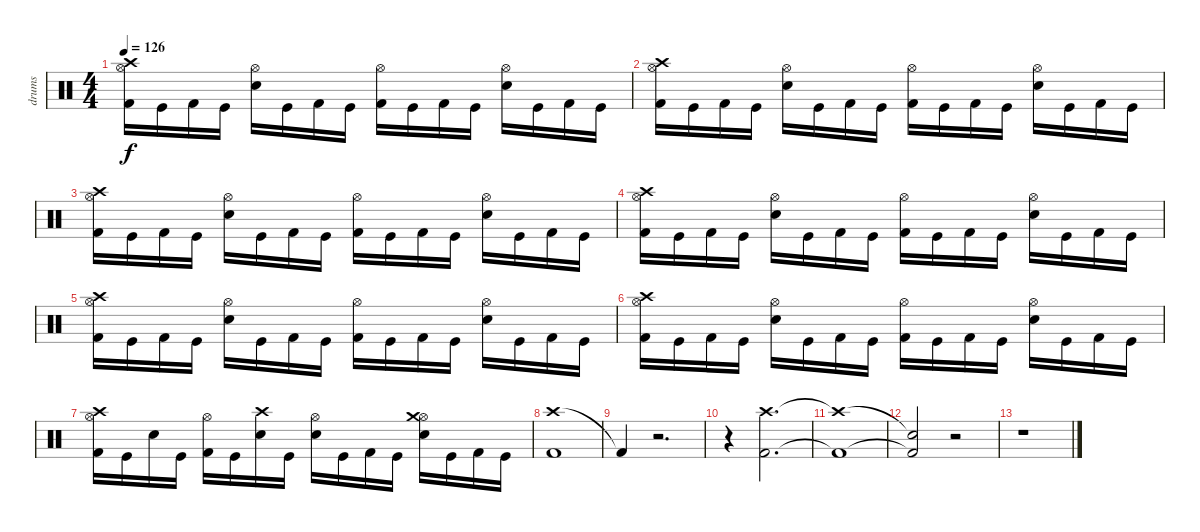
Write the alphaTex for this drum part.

\track ("drums" "drums") {instrument percussion}
\staff {score}
\articulation defaults
\ts (4 4)
\tempo 126
\clef neutral
\ks c
("Kick (hit) 2" "Hi-Hat (open)" "Crash high (hit)").16{dy f} "Kick (hit)".16 "Kick (hit) 2".16 "Kick (hit)".16 ("Electric Snare (hit)" "Hi-Hat (open)").16 "Kick (hit)".16 "Kick (hit) 2".16 "Kick (hit)".16 ("Kick (hit) 2" "Hi-Hat (open)").16 "Kick (hit)".16 "Kick (hit) 2".16 "Kick (hit)".16 ("Electric Snare (hit)" "Hi-Hat (open)").16 "Kick (hit)".16 "Kick (hit) 2".16 "Kick (hit)".16 |
("Kick (hit) 2" "Hi-Hat (open)" "Crash high (hit)").16 "Kick (hit)".16 "Kick (hit) 2".16 "Kick (hit)".16 ("Electric Snare (hit)" "Hi-Hat (open)").16 "Kick (hit)".16 "Kick (hit) 2".16 "Kick (hit)".16 ("Kick (hit) 2" "Hi-Hat (open)").16 "Kick (hit)".16 "Kick (hit) 2".16 "Kick (hit)".16 ("Electric Snare (hit)" "Hi-Hat (open)").16 "Kick (hit)".16 "Kick (hit) 2".16 "Kick (hit)".16 |
("Kick (hit) 2" "Hi-Hat (open)" "Crash high (hit)").16 "Kick (hit)".16 "Kick (hit) 2".16 "Kick (hit)".16 ("Electric Snare (hit)" "Hi-Hat (open)").16 "Kick (hit)".16 "Kick (hit) 2".16 "Kick (hit)".16 ("Kick (hit) 2" "Hi-Hat (open)").16 "Kick (hit)".16 "Kick (hit) 2".16 "Kick (hit)".16 ("Electric Snare (hit)" "Hi-Hat (open)").16 "Kick (hit)".16 "Kick (hit) 2".16 "Kick (hit)".16 |
("Kick (hit) 2" "Hi-Hat (open)" "Crash high (hit)").16 "Kick (hit)".16 "Kick (hit) 2".16 "Kick (hit)".16 ("Electric Snare (hit)" "Hi-Hat (open)").16 "Kick (hit)".16 "Kick (hit) 2".16 "Kick (hit)".16 ("Kick (hit) 2" "Hi-Hat (open)").16 "Kick (hit)".16 "Kick (hit) 2".16 "Kick (hit)".16 ("Electric Snare (hit)" "Hi-Hat (open)").16 "Kick (hit)".16 "Kick (hit) 2".16 "Kick (hit)".16 |
("Kick (hit) 2" "Hi-Hat (open)" "Crash high (hit)").16 "Kick (hit)".16 "Kick (hit) 2".16 "Kick (hit)".16 ("Electric Snare (hit)" "Hi-Hat (open)").16 "Kick (hit)".16 "Kick (hit) 2".16 "Kick (hit)".16 ("Kick (hit) 2" "Hi-Hat (open)").16 "Kick (hit)".16 "Kick (hit) 2".16 "Kick (hit)".16 ("Electric Snare (hit)" "Hi-Hat (open)").16 "Kick (hit)".16 "Kick (hit) 2".16 "Kick (hit)".16 |
("Kick (hit) 2" "Hi-Hat (open)" "Crash high (hit)").16 "Kick (hit)".16 "Kick (hit) 2".16 "Kick (hit)".16 ("Electric Snare (hit)" "Hi-Hat (open)").16 "Kick (hit)".16 "Kick (hit) 2".16 "Kick (hit)".16 ("Kick (hit) 2" "Hi-Hat (open)").16 "Kick (hit)".16 "Kick (hit) 2".16 "Kick (hit)".16 ("Electric Snare (hit)" "Hi-Hat (open)").16 "Kick (hit)".16 "Kick (hit) 2".16 "Kick (hit)".16 |
("Kick (hit) 2" "Hi-Hat (open)" "Crash high (hit)").16 "Kick (hit)".16 "Electric Snare (hit)".16 "Kick (hit)".16 ("Kick (hit) 2" "Hi-Hat (open)").16 "Kick (hit)".16 ("Electric Snare (hit)" "Crash high (hit)").16 "Kick (hit)".16 ("Electric Snare (hit)" "Hi-Hat (open)").16 "Kick (hit)".16 "Kick (hit) 2".16 "Kick (hit)".16 ("Electric Snare (hit)" "Hi-Hat (open)" "Crash medium (hit)").16 "Kick (hit)".16 "Kick (hit) 2".16 "Kick (hit)".16 |
("Crash high (hit)" "Kick (hit) 2").1 |
"Kick (hit) 2"{t}.4 r.2{d} |
r.4 ("Crash high (hit)" "Kick (hit) 2").2{d} |
("Crash high (hit)"{t} "Kick (hit) 2"{t}).1 |
("Snare (hit)"{t} "Kick (hit) 2"{t}).2 r.2 |
r.1
